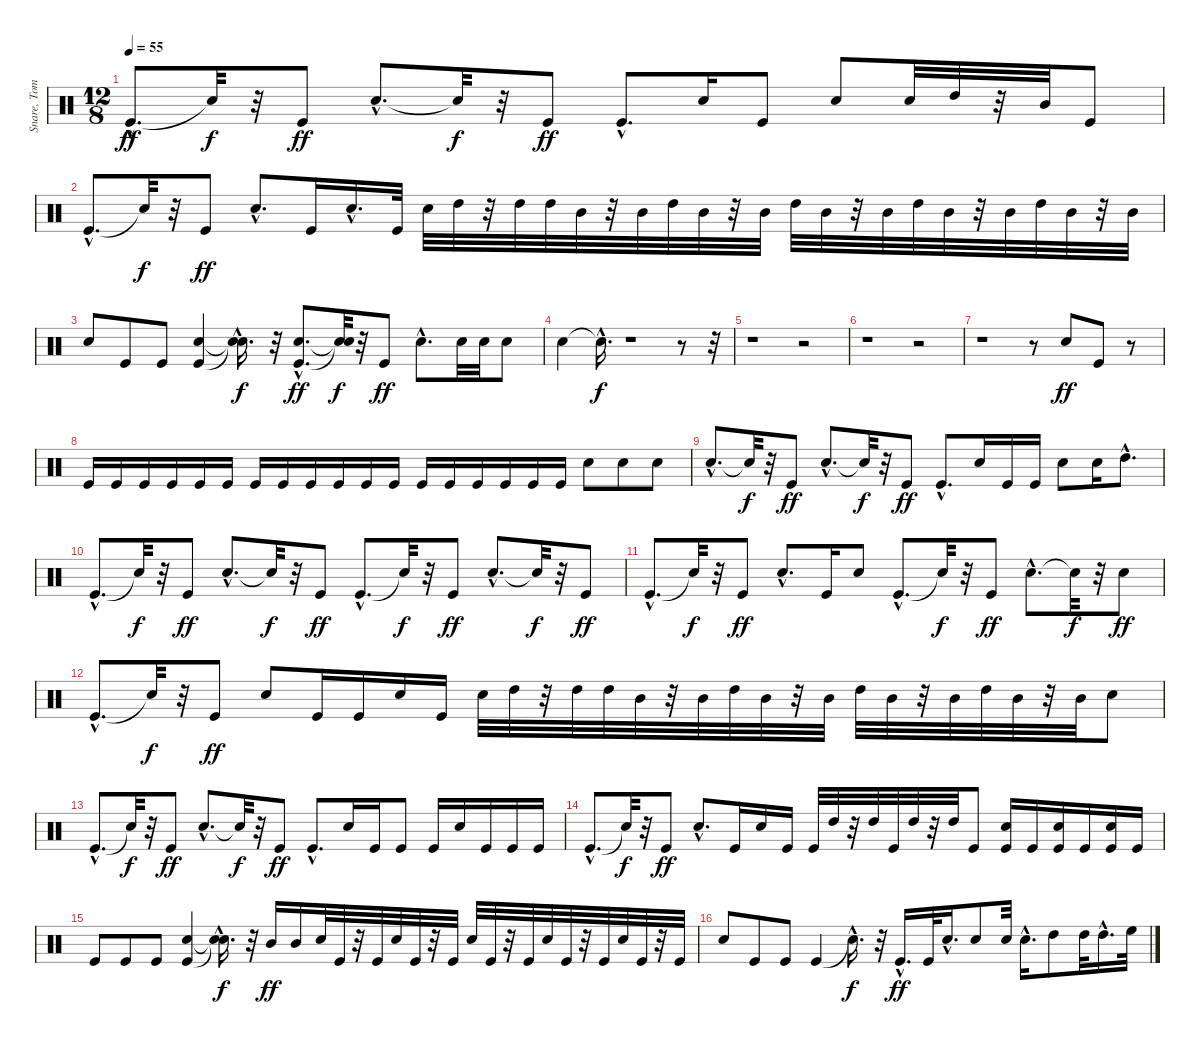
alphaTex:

\track ("Snare, Toms, Bass drum" "Snare, Tom") {instrument percussion}
\staff {score}
\articulation defaults
\ts (12 8)
\tempo 55
\clef neutral
\ks c "Kick (hit)"{hac}.8{d dy ff} "Snare (hit)"{t}.32{dy f}
r.32 "Kick (hit)".8{dy ff} "Snare (hit) 2"{hac}.8{d} "Snare (hit)"{t}.32{dy f} r.32 "Kick (hit)".8{dy ff} "Kick (hit)"{hac}.8{d} "Snare (hit) 2".16 "Kick (hit)".8 "Snare (hit) 2".8 "Snare (hit) 2".32 "High Tom (hit)".32 r.32 "Mid Tom (hit)".32 "Kick (hit)".8 |
"Kick (hit)"{hac}.8{d} "Snare (hit)"{t}.32{dy f} r.32 "Kick (hit)".8{dy ff} "Snare (hit) 2"{hac}.8{d} "Kick (hit)".16 "Snare (hit) 2"{hac}.16{d} "Kick (hit)".32 "Snare (hit) 2".32 "High Tom (hit)".32 r.32 "High Tom (hit)".32 "High Tom (hit)".32 "Mid Tom (hit)".32 r.32 "Mid Tom (hit)".32 "High Tom (hit)".32 "Mid Tom (hit)".32 r.32 "Mid Tom (hit)".32 "High Tom (hit)".32 "Mid Tom (hit)".32 r.32 "Mid Tom (hit)".32 "High Tom (hit)".32 "Mid Tom (hit)".32 r.32 "Mid Tom (hit)".32 "High Tom (hit)".32 "Mid Tom (hit)".32 r.32 "Mid Tom (hit)".32 |
"Snare (hit) 2".8 "Kick (hit)".8 "Kick (hit)".8 ("Kick (hit)" "Snare (hit) 2").4 ("Snare (hit)"{hac t} "Snare (hit)"{hac t}).16{d dy f} r.32 ("Kick (hit)"{hac} "Snare (hit) 2"{hac}).8{d dy ff} ("Snare (hit)"{t} "Snare (hit)"{t}).32{dy f} r.32 "Kick (hit)".8{dy ff} "Snare (hit) 2"{hac}.8{d} "Snare (hit) 2".32 "Snare (hit) 2".32 "Snare (hit) 2".8 |
"Snare (hit) 2".4 "Snare (hit)"{hac t}.16{d dy f} r.1 r.8 r.32 |
r.1 r.2 |
r.1 r.2 |
r.1 r.8 "Snare (hit) 2".8{dy ff} "Kick (hit)".8 r.8 |
"Kick (hit)".16 "Kick (hit)".16 "Kick (hit)".16 "Kick (hit)".16 "Kick (hit)".16 "Kick (hit)".16 "Kick (hit)".16 "Kick (hit)".16 "Kick (hit)".16 "Kick (hit)".16 "Kick (hit)".16 "Kick (hit)".16 "Kick (hit)".16 "Kick (hit)".16 "Kick (hit)".16 "Kick (hit)".16 "Kick (hit)".16 "Kick (hit)".16 "Snare (hit) 2".8 "Snare (hit) 2".8 "Snare (hit) 2".8 |
"Snare (hit) 2"{hac}.8{d} "Snare (hit)"{t}.32{dy f} r.32 "Kick (hit)".8{dy ff} "Snare (hit) 2"{hac}.8{d} "Snare (hit)"{t}.32{dy f} r.32 "Kick (hit)".8{dy ff} "Kick (hit)"{hac}.8{d} "Snare (hit) 2".16 "Kick (hit)".16 "Kick (hit)".16 "Snare (hit) 2".8 "Snare (hit) 2".16 "High Tom (hit)"{hac}.8{d} |
"Kick (hit)"{hac}.8{d} "Snare (hit)"{t}.32{dy f} r.32 "Kick (hit)".8{dy ff} "Snare (hit) 2"{hac}.8{d} "Snare (hit)"{t}.32{dy f} r.32 "Kick (hit)".8{dy ff} "Kick (hit)"{hac}.8{d} "Snare (hit)"{t}.32{dy f} r.32 "Kick (hit)".8{dy ff} "Snare (hit) 2"{hac}.8{d} "Snare (hit)"{t}.32{dy f} r.32 "Kick (hit)".8{dy ff} |
"Kick (hit)"{hac}.8{d} "Snare (hit)"{t}.32{dy f} r.32 "Kick (hit)".8{dy ff} "Snare (hit) 2"{hac}.8{d} "Kick (hit)".16 "Snare (hit) 2".8 "Kick (hit)"{hac}.8{d} "Snare (hit)"{t}.32{dy f} r.32 "Kick (hit)".8{dy ff} "Snare (hit) 2"{hac}.8{d} "Snare (hit)"{t}.32{dy f} r.32 "Snare (hit) 2".8{dy ff} |
"Kick (hit)"{hac}.8{d} "Snare (hit)"{t}.32{dy f} r.32 "Kick (hit)".8{dy ff} "Snare (hit) 2".8 "Kick (hit)".16 "Kick (hit)".16 "Snare (hit) 2".16 "Kick (hit)".16 "Snare (hit) 2".32 "High Tom (hit)".32 r.32 "High Tom (hit)".32 "High Tom (hit)".32 "Mid Tom (hit)".32 r.32 "Mid Tom (hit)".32 "High Tom (hit)".32 "Mid Tom (hit)".32 r.32 "Mid Tom (hit)".32 "High Tom (hit)".32 "Mid Tom (hit)".32 r.32 "Mid Tom (hit)".32 "High Tom (hit)".32 "Mid Tom (hit)".32 r.32 "Mid Tom (hit)".32 "Snare (hit) 2".8 |
"Kick (hit)"{hac}.8{d} "Snare (hit)"{t}.32{dy f} r.32 "Kick (hit)".8{dy ff} "Snare (hit) 2"{hac}.8{d} "Snare (hit)"{t}.32{dy f} r.32 "Kick (hit)".8{dy ff} "Kick (hit)"{hac}.8{d} "Snare (hit) 2".16 "Kick (hit)".16 "Kick (hit)".8 "Kick (hit)".16 "Snare (hit) 2".16 "Kick (hit)".16 "Kick (hit)".16 "Kick (hit)".16 |
"Kick (hit)"{hac}.8{d} "Snare (hit)"{t}.32{dy f} r.32 "Kick (hit)".8{dy ff} "Snare (hit) 2"{hac}.8{d} "Kick (hit)".16 "Snare (hit) 2".16 "Kick (hit)".16 "Kick (hit)".32 "High Tom (hit)".32 r.32 "High Tom (hit)".32 "Kick (hit)".32 "High Tom (hit)".32 r.32 "High Tom (hit)".32 "Kick (hit)".8 ("Kick (hit)" "Snare (hit) 2").16 "Kick (hit)".16 ("Kick (hit)" "Snare (hit) 2").16 "Kick (hit)".16 ("Kick (hit)" "Snare (hit) 2").16 "Kick (hit)".16 |
"Kick (hit)".8 "Kick (hit)".8 "Kick (hit)".8 ("Kick (hit)" "Snare (hit) 2").4 ("Snare (hit)"{hac t} "Snare (hit)"{hac t}).16{d dy f} r.32 "Mid Tom (hit)".16{dy ff} "Mid Tom (hit)".16 "Snare (hit) 2".32 "Kick (hit)".32 r.32 "Kick (hit)".32 "Snare (hit) 2".32 "Kick (hit)".32 r.32 "Kick (hit)".32 "Snare (hit) 2".32 "Kick (hit)".32 r.32 "Kick (hit)".32 "Snare (hit) 2".32 "Kick (hit)".32 r.32 "Kick (hit)".32 "Snare (hit) 2".32 "Kick (hit)".32 r.32 "Kick (hit)".32 |
"Snare (hit) 2".8 "Kick (hit)".8 "Kick (hit)".8 "Kick (hit)".4 "Snare (hit)"{hac t}.16{d dy f} r.32 "Kick (hit)"{hac}.16{d dy ff} "Kick (hit)".32 "Snare (hit) 2"{hac}.16{d} "Snare (hit) 2".8 "Snare (hit) 2".32 "Snare (hit) 2"{hac}.16{d} "High Tom (hit)".8 "High Tom (hit)".32 "High Tom (hit)"{hac}.16{d} "High Floor Tom (hit)".32
